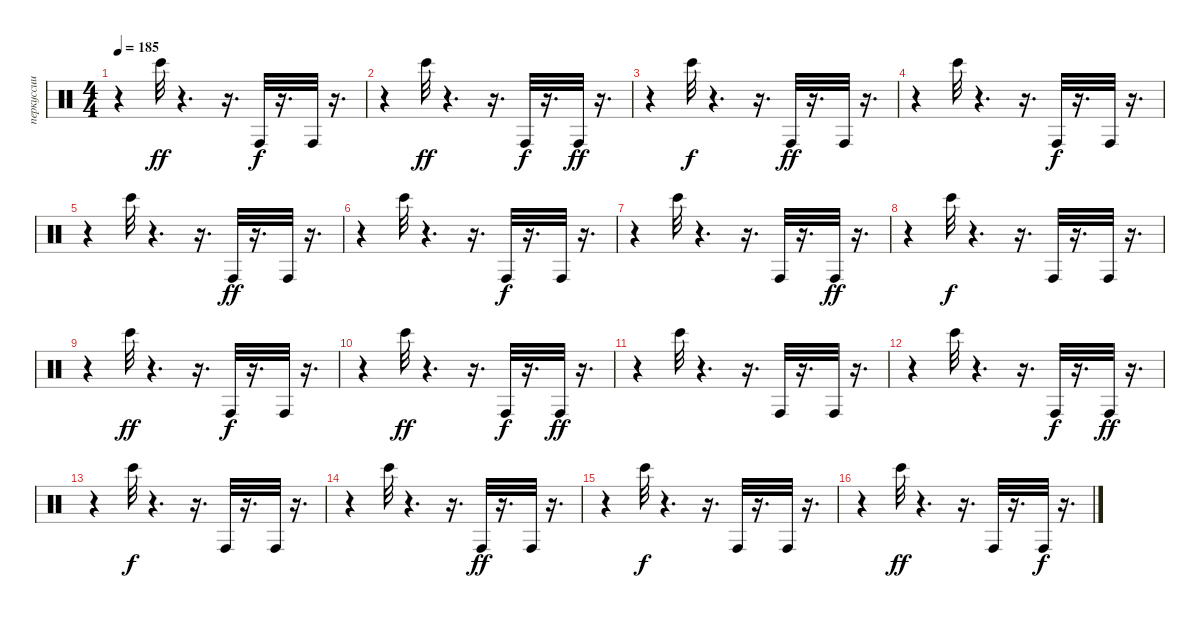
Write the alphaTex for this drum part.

\track ("перкуссии" "перкуссии") {instrument percussion}
\staff {score}
\articulation defaults
\ts (4 4)
\tempo 185
\clef neutral
\ks c
r.4{dy f} "Bongo High (hit)".32{dy ff} r.4{d} r.16{d} "Conga high (hit)".32{dy f} r.16{d} "Conga high (hit)".32 r.16{d} |
r.4 "Bongo High (hit)".32{dy ff} r.4{d} r.16{d} "Conga high (hit)".32{dy f} r.16{d} "Conga high (hit)".32{dy ff} r.16{d} |
r.4 "Bongo High (hit)".32{dy f} r.4{d} r.16{d} "Conga high (hit)".32{dy ff} r.16{d} "Conga high (hit)".32 r.16{d} |
r.4 "Bongo High (hit)".32 r.4{d} r.16{d} "Conga high (hit)".32{dy f} r.16{d} "Conga high (hit)".32 r.16{d} |
r.4 "Bongo High (hit)".32 r.4{d} r.16{d} "Conga high (hit)".32{dy ff} r.16{d} "Conga high (hit)".32 r.16{d} |
r.4 "Bongo High (hit)".32 r.4{d} r.16{d} "Conga high (hit)".32{dy f} r.16{d} "Conga high (hit)".32 r.16{d} |
r.4 "Bongo High (hit)".32 r.4{d} r.16{d} "Conga high (hit)".32 r.16{d} "Conga high (hit)".32{dy ff} r.16{d} |
r.4 "Bongo High (hit)".32{dy f} r.4{d} r.16{d} "Conga high (hit)".32 r.16{d} "Conga high (hit)".32 r.16{d} |
r.4 "Bongo High (hit)".32{dy ff} r.4{d} r.16{d} "Conga high (hit)".32{dy f} r.16{d} "Conga high (hit)".32 r.16{d} |
r.4 "Bongo High (hit)".32{dy ff} r.4{d} r.16{d} "Conga high (hit)".32{dy f} r.16{d} "Conga high (hit)".32{dy ff} r.16{d} |
r.4 "Bongo High (hit)".32 r.4{d} r.16{d} "Conga high (hit)".32 r.16{d} "Conga high (hit)".32 r.16{d} |
r.4 "Bongo High (hit)".32 r.4{d} r.16{d} "Conga high (hit)".32{dy f} r.16{d} "Conga high (hit)".32{dy ff} r.16{d} |
r.4 "Bongo High (hit)".32{dy f} r.4{d} r.16{d} "Conga high (hit)".32 r.16{d} "Conga high (hit)".32 r.16{d} |
r.4 "Bongo High (hit)".32 r.4{d} r.16{d} "Conga high (hit)".32{dy ff} r.16{d} "Conga high (hit)".32 r.16{d} |
r.4 "Bongo High (hit)".32{dy f} r.4{d} r.16{d} "Conga high (hit)".32 r.16{d} "Conga high (hit)".32 r.16{d} |
r.4 "Bongo High (hit)".32{dy ff} r.4{d} r.16{d} "Conga high (hit)".32 r.16{d} "Conga high (hit)".32{dy f} r.16{d}
